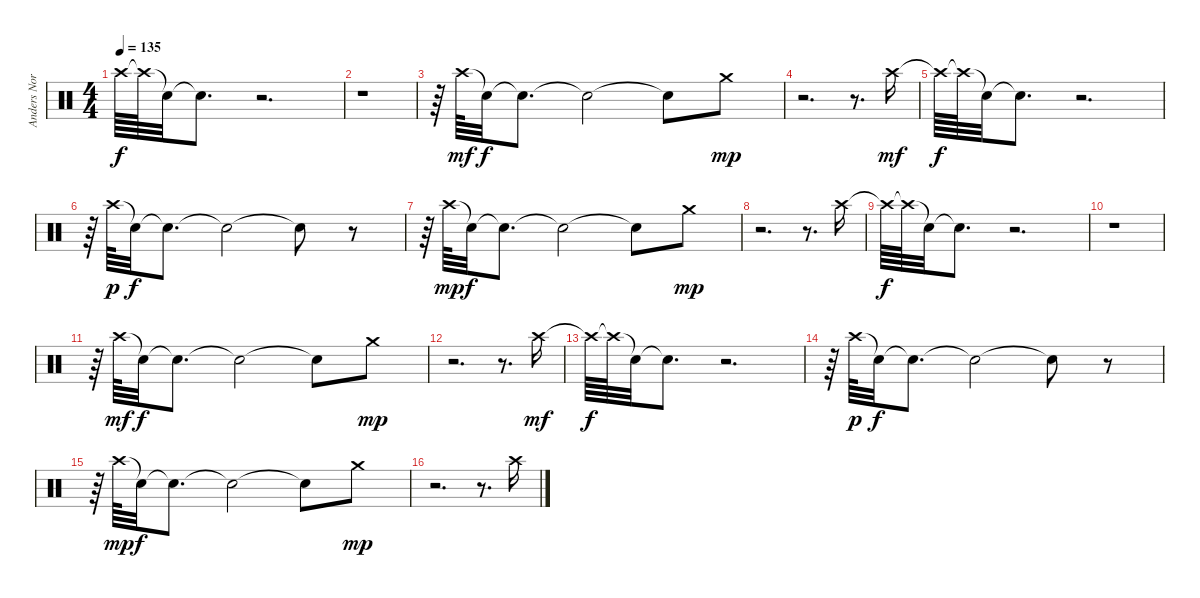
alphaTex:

\track ("Anders Nordin" "Anders Nor") {instrument percussion}
\staff {score}
\articulation defaults
\ts (4 4)
\tempo 135
\clef neutral
\ks c "Crash high (hit)"{t}.64{dy f} "Crash high (hit)"{t}.64 "Snare (hit)"{t}.32 "Snare (hit)"{t}.8{d}
r.2{d} |
r.1 |
r.64{volume 0} "Crash high (hit)".64{dy mf volume 16} "Snare (hit)"{t}.32{dy f} "Snare (hit)"{t}.8{d} "Snare (hit)"{t}.2 "Snare (hit)"{t}.8{volume 0} "Crash medium (hit)".8{dy mp volume 16} |
r.2{d} r.8{d volume 0} "Crash high (hit)".16{dy mf volume 16} |
"Crash high (hit)"{t}.64{dy f} "Crash high (hit)"{t}.64 "Snare (hit)"{t}.32 "Snare (hit)"{t}.8{d} r.2{d} |
r.64{volume 0} "Crash high (hit)".64{dy p volume 16} "Snare (hit)"{t}.32{dy f} "Snare (hit)"{t}.8{d} "Snare (hit)"{t}.2 "Snare (hit)"{t}.8{volume 0} r.8 |
r.64{volume 0} "Crash high (hit)".64{dy mp volume 16} "Snare (hit)"{t}.32{dy f} "Snare (hit)"{t}.8{d} "Snare (hit)"{t}.2 "Snare (hit)"{t}.8{volume 0} "Crash medium (hit)".8{dy mp volume 16} |
r.2{d} r.8{d volume 0} "Crash high (hit)".16{volume 16} |
"Crash high (hit)"{t}.64{dy f} "Crash high (hit)"{t}.64 "Snare (hit)"{t}.32 "Snare (hit)"{t}.8{d} r.2{d} |
r.1 |
r.64{volume 0} "Crash high (hit)".64{dy mf volume 16} "Snare (hit)"{t}.32{dy f} "Snare (hit)"{t}.8{d} "Snare (hit)"{t}.2 "Snare (hit)"{t}.8{volume 0} "Crash medium (hit)".8{dy mp volume 16} |
r.2{d} r.8{d volume 0} "Crash high (hit)".16{dy mf volume 16} |
"Crash high (hit)"{t}.64{dy f} "Crash high (hit)"{t}.64 "Snare (hit)"{t}.32 "Snare (hit)"{t}.8{d} r.2{d} |
r.64{volume 0} "Crash high (hit)".64{dy p volume 16} "Snare (hit)"{t}.32{dy f} "Snare (hit)"{t}.8{d} "Snare (hit)"{t}.2 "Snare (hit)"{t}.8{volume 0} r.8 |
r.64{volume 0} "Crash high (hit)".64{dy mp volume 16} "Snare (hit)"{t}.32{dy f} "Snare (hit)"{t}.8{d} "Snare (hit)"{t}.2 "Snare (hit)"{t}.8{volume 0} "Crash medium (hit)".8{dy mp volume 16} |
r.2{d} r.8{d volume 0} "Crash high (hit)".16{volume 16}
